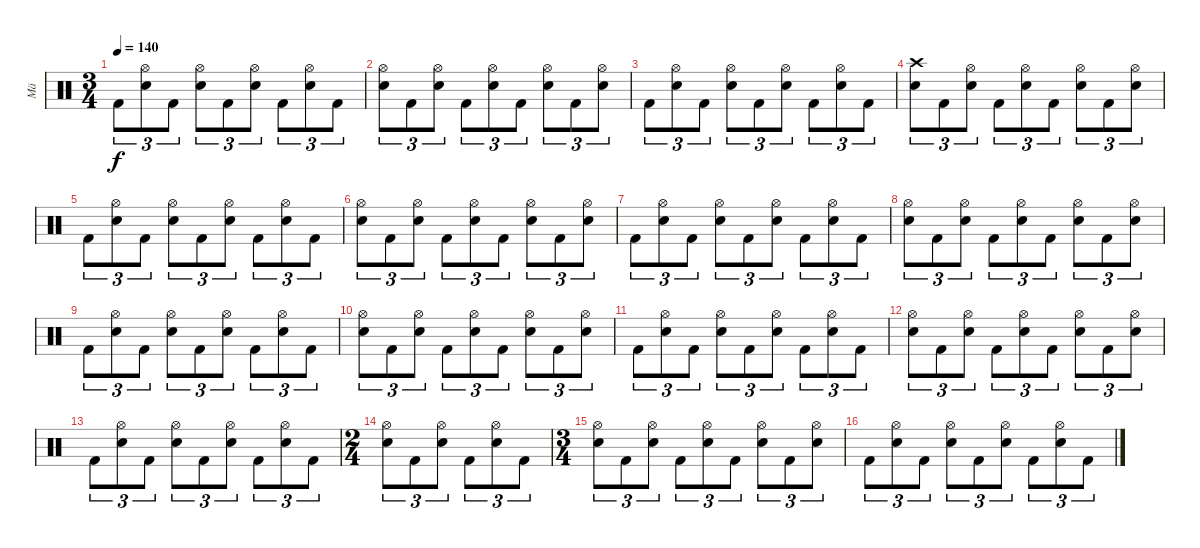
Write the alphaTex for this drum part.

\track ("Mä" "Mä") {instrument percussion}
\staff {score}
\articulation defaults
\ts (3 4)
\tempo 140
\clef neutral
\ks c "Kick (hit) 2".8{tu (3 2) dy f}
("Hi-Hat (open)" "Snare (hit) 2").8{tu (3 2)} "Kick (hit) 2".8{tu (3 2)} ("Hi-Hat (open)" "Snare (hit) 2").8{tu (3 2)} "Kick (hit) 2".8{tu (3 2)} ("Hi-Hat (open)" "Snare (hit) 2").8{tu (3 2)} "Kick (hit) 2".8{tu (3 2)} ("Hi-Hat (open)" "Snare (hit) 2").8{tu (3 2)} "Kick (hit) 2".8{tu (3 2)} |
("Hi-Hat (open)" "Snare (hit) 2").8{tu (3 2)} "Kick (hit) 2".8{tu (3 2)} ("Hi-Hat (open)" "Snare (hit) 2").8{tu (3 2)} "Kick (hit) 2".8{tu (3 2)} ("Hi-Hat (open)" "Snare (hit) 2").8{tu (3 2)} "Kick (hit) 2".8{tu (3 2)} ("Hi-Hat (open)" "Snare (hit) 2").8{tu (3 2)} "Kick (hit) 2".8{tu (3 2)} ("Hi-Hat (open)" "Snare (hit) 2").8{tu (3 2)} |
"Kick (hit) 2".8{tu (3 2)} ("Hi-Hat (open)" "Snare (hit) 2").8{tu (3 2)} "Kick (hit) 2".8{tu (3 2)} ("Hi-Hat (open)" "Snare (hit) 2").8{tu (3 2)} "Kick (hit) 2".8{tu (3 2)} ("Hi-Hat (open)" "Snare (hit) 2").8{tu (3 2)} "Kick (hit) 2".8{tu (3 2)} ("Hi-Hat (open)" "Snare (hit) 2").8{tu (3 2)} "Kick (hit) 2".8{tu (3 2)} |
("Crash high (hit)" "Snare (hit) 2").8{tu (3 2)} "Kick (hit) 2".8{tu (3 2)} ("Hi-Hat (open)" "Snare (hit) 2").8{tu (3 2)} "Kick (hit) 2".8{tu (3 2)} ("Hi-Hat (open)" "Snare (hit) 2").8{tu (3 2)} "Kick (hit) 2".8{tu (3 2)} ("Hi-Hat (open)" "Snare (hit) 2").8{tu (3 2)} "Kick (hit) 2".8{tu (3 2)} ("Hi-Hat (open)" "Snare (hit) 2").8{tu (3 2)} |
"Kick (hit) 2".8{tu (3 2)} ("Hi-Hat (open)" "Snare (hit) 2").8{tu (3 2)} "Kick (hit) 2".8{tu (3 2)} ("Hi-Hat (open)" "Snare (hit) 2").8{tu (3 2)} "Kick (hit) 2".8{tu (3 2)} ("Hi-Hat (open)" "Snare (hit) 2").8{tu (3 2)} "Kick (hit) 2".8{tu (3 2)} ("Hi-Hat (open)" "Snare (hit) 2").8{tu (3 2)} "Kick (hit) 2".8{tu (3 2)} |
("Hi-Hat (open)" "Snare (hit) 2").8{tu (3 2)} "Kick (hit) 2".8{tu (3 2)} ("Hi-Hat (open)" "Snare (hit) 2").8{tu (3 2)} "Kick (hit) 2".8{tu (3 2)} ("Hi-Hat (open)" "Snare (hit) 2").8{tu (3 2)} "Kick (hit) 2".8{tu (3 2)} ("Hi-Hat (open)" "Snare (hit) 2").8{tu (3 2)} "Kick (hit) 2".8{tu (3 2)} ("Hi-Hat (open)" "Snare (hit) 2").8{tu (3 2)} |
"Kick (hit) 2".8{tu (3 2)} ("Hi-Hat (open)" "Snare (hit) 2").8{tu (3 2)} "Kick (hit) 2".8{tu (3 2)} ("Hi-Hat (open)" "Snare (hit) 2").8{tu (3 2)} "Kick (hit) 2".8{tu (3 2)} ("Hi-Hat (open)" "Snare (hit) 2").8{tu (3 2)} "Kick (hit) 2".8{tu (3 2)} ("Hi-Hat (open)" "Snare (hit) 2").8{tu (3 2)} "Kick (hit) 2".8{tu (3 2)} |
("Hi-Hat (open)" "Snare (hit) 2").8{tu (3 2)} "Kick (hit) 2".8{tu (3 2)} ("Hi-Hat (open)" "Snare (hit) 2").8{tu (3 2)} "Kick (hit) 2".8{tu (3 2)} ("Hi-Hat (open)" "Snare (hit) 2").8{tu (3 2)} "Kick (hit) 2".8{tu (3 2)} ("Hi-Hat (open)" "Snare (hit) 2").8{tu (3 2)} "Kick (hit) 2".8{tu (3 2)} ("Hi-Hat (open)" "Snare (hit) 2").8{tu (3 2)} |
"Kick (hit) 2".8{tu (3 2)} ("Hi-Hat (open)" "Snare (hit) 2").8{tu (3 2)} "Kick (hit) 2".8{tu (3 2)} ("Hi-Hat (open)" "Snare (hit) 2").8{tu (3 2)} "Kick (hit) 2".8{tu (3 2)} ("Hi-Hat (open)" "Snare (hit) 2").8{tu (3 2)} "Kick (hit) 2".8{tu (3 2)} ("Hi-Hat (open)" "Snare (hit) 2").8{tu (3 2)} "Kick (hit) 2".8{tu (3 2)} |
("Hi-Hat (open)" "Snare (hit) 2").8{tu (3 2)} "Kick (hit) 2".8{tu (3 2)} ("Hi-Hat (open)" "Snare (hit) 2").8{tu (3 2)} "Kick (hit) 2".8{tu (3 2)} ("Hi-Hat (open)" "Snare (hit) 2").8{tu (3 2)} "Kick (hit) 2".8{tu (3 2)} ("Hi-Hat (open)" "Snare (hit) 2").8{tu (3 2)} "Kick (hit) 2".8{tu (3 2)} ("Hi-Hat (open)" "Snare (hit) 2").8{tu (3 2)} |
"Kick (hit) 2".8{tu (3 2)} ("Hi-Hat (open)" "Snare (hit) 2").8{tu (3 2)} "Kick (hit) 2".8{tu (3 2)} ("Hi-Hat (open)" "Snare (hit) 2").8{tu (3 2)} "Kick (hit) 2".8{tu (3 2)} ("Hi-Hat (open)" "Snare (hit) 2").8{tu (3 2)} "Kick (hit) 2".8{tu (3 2)} ("Hi-Hat (open)" "Snare (hit) 2").8{tu (3 2)} "Kick (hit) 2".8{tu (3 2)} |
("Hi-Hat (open)" "Snare (hit) 2").8{tu (3 2)} "Kick (hit) 2".8{tu (3 2)} ("Hi-Hat (open)" "Snare (hit) 2").8{tu (3 2)} "Kick (hit) 2".8{tu (3 2)} ("Hi-Hat (open)" "Snare (hit) 2").8{tu (3 2)} "Kick (hit) 2".8{tu (3 2)} ("Hi-Hat (open)" "Snare (hit) 2").8{tu (3 2)} "Kick (hit) 2".8{tu (3 2)} ("Hi-Hat (open)" "Snare (hit) 2").8{tu (3 2)} |
"Kick (hit) 2".8{tu (3 2)} ("Hi-Hat (open)" "Snare (hit) 2").8{tu (3 2)} "Kick (hit) 2".8{tu (3 2)} ("Hi-Hat (open)" "Snare (hit) 2").8{tu (3 2)} "Kick (hit) 2".8{tu (3 2)} ("Hi-Hat (open)" "Snare (hit) 2").8{tu (3 2)} "Kick (hit) 2".8{tu (3 2)} ("Hi-Hat (open)" "Snare (hit) 2").8{tu (3 2)} "Kick (hit) 2".8{tu (3 2)} |
\ts (2 4)
("Hi-Hat (open)" "Snare (hit) 2").8{tu (3 2)} "Kick (hit) 2".8{tu (3 2)} ("Hi-Hat (open)" "Snare (hit) 2").8{tu (3 2)} "Kick (hit) 2".8{tu (3 2)} ("Hi-Hat (open)" "Snare (hit) 2").8{tu (3 2)} "Kick (hit) 2".8{tu (3 2)} |
\ts (3 4)
("Hi-Hat (open)" "Snare (hit) 2").8{tu (3 2)} "Kick (hit) 2".8{tu (3 2)} ("Hi-Hat (open)" "Snare (hit) 2").8{tu (3 2)} "Kick (hit) 2".8{tu (3 2)} ("Hi-Hat (open)" "Snare (hit) 2").8{tu (3 2)} "Kick (hit) 2".8{tu (3 2)} ("Hi-Hat (open)" "Snare (hit) 2").8{tu (3 2)} "Kick (hit) 2".8{tu (3 2)} ("Hi-Hat (open)" "Snare (hit) 2").8{tu (3 2)} |
"Kick (hit) 2".8{tu (3 2)} ("Hi-Hat (open)" "Snare (hit) 2").8{tu (3 2)} "Kick (hit) 2".8{tu (3 2)} ("Hi-Hat (open)" "Snare (hit) 2").8{tu (3 2)} "Kick (hit) 2".8{tu (3 2)} ("Hi-Hat (open)" "Snare (hit) 2").8{tu (3 2)} "Kick (hit) 2".8{tu (3 2)} ("Hi-Hat (open)" "Snare (hit) 2").8{tu (3 2)} "Kick (hit) 2".8{tu (3 2)}
